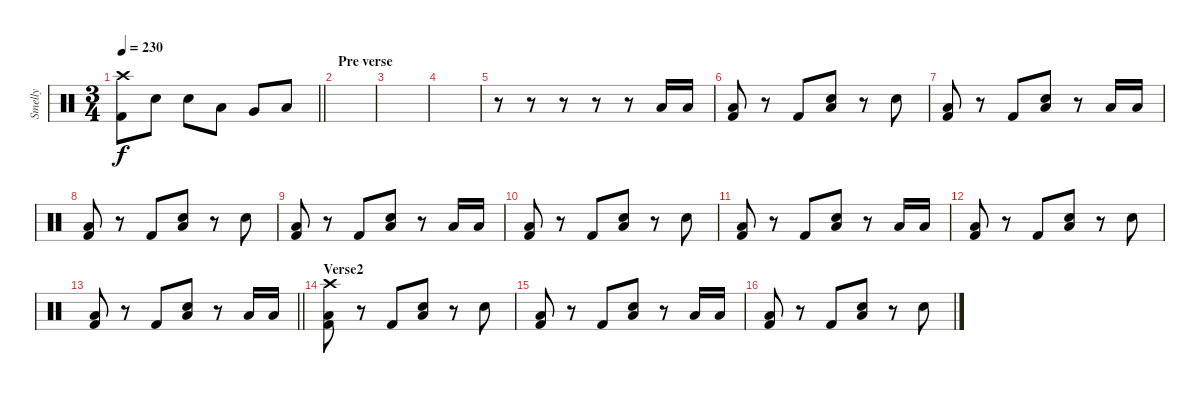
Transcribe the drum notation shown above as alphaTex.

\track ("Smelly" "Smelly") {instrument percussion}
\staff {score}
\articulation defaults
\ts (3 4)
\tempo 230
\clef neutral
\barLineRight lightlight
\ks c
("Crash high (hit)" "Kick (hit) 2").8{dy f} "Electric Snare (hit)".8 "Electric Snare (hit)".8 "Low Tom (hit)".8 "Very Low Tom (hit)".8 "Low Floor Tom (hit)".8 |
\section ("" "Pre verse")
|
|
|
r.8 r.8 r.8 r.8 r.8 "Low Floor Tom (hit)".16 "Low Floor Tom (hit)".16 |
("Low Floor Tom (hit)" "Kick (hit) 2").8 r.8 "Kick (hit) 2".8 ("Low Floor Tom (hit)" "Electric Snare (hit)").8 r.8 "Electric Snare (hit)".8 |
("Low Floor Tom (hit)" "Kick (hit) 2").8 r.8 "Kick (hit) 2".8 ("Low Floor Tom (hit)" "Electric Snare (hit)").8 r.8 "Low Floor Tom (hit)".16 "Low Floor Tom (hit)".16 |
("Low Floor Tom (hit)" "Kick (hit) 2").8 r.8 "Kick (hit) 2".8 ("Low Floor Tom (hit)" "Electric Snare (hit)").8 r.8 "Electric Snare (hit)".8 |
("Low Floor Tom (hit)" "Kick (hit) 2").8 r.8 "Kick (hit) 2".8 ("Low Floor Tom (hit)" "Electric Snare (hit)").8 r.8 "Low Floor Tom (hit)".16 "Low Floor Tom (hit)".16 |
("Low Floor Tom (hit)" "Kick (hit) 2").8 r.8 "Kick (hit) 2".8 ("Low Floor Tom (hit)" "Electric Snare (hit)").8 r.8 "Electric Snare (hit)".8 |
("Low Floor Tom (hit)" "Kick (hit) 2").8 r.8 "Kick (hit) 2".8 ("Low Floor Tom (hit)" "Electric Snare (hit)").8 r.8 "Low Floor Tom (hit)".16 "Low Floor Tom (hit)".16 |
("Low Floor Tom (hit)" "Kick (hit) 2").8 r.8 "Kick (hit) 2".8 ("Low Floor Tom (hit)" "Electric Snare (hit)").8 r.8 "Electric Snare (hit)".8 |
\barLineRight lightlight
("Low Floor Tom (hit)" "Kick (hit) 2").8 r.8 "Kick (hit) 2".8 ("Low Floor Tom (hit)" "Electric Snare (hit)").8 r.8 "Low Floor Tom (hit)".16 "Low Floor Tom (hit)".16 |
\section ("" "Verse2")
("Crash high (hit)" "Low Floor Tom (hit)" "Kick (hit) 2").8 r.8 "Kick (hit) 2".8 ("Low Floor Tom (hit)" "Electric Snare (hit)").8 r.8 "Electric Snare (hit)".8 |
("Low Floor Tom (hit)" "Kick (hit) 2").8 r.8 "Kick (hit) 2".8 ("Low Floor Tom (hit)" "Electric Snare (hit)").8 r.8 "Low Floor Tom (hit)".16 "Low Floor Tom (hit)".16 |
("Low Floor Tom (hit)" "Kick (hit) 2").8 r.8 "Kick (hit) 2".8 ("Low Floor Tom (hit)" "Electric Snare (hit)").8 r.8 "Electric Snare (hit)".8
